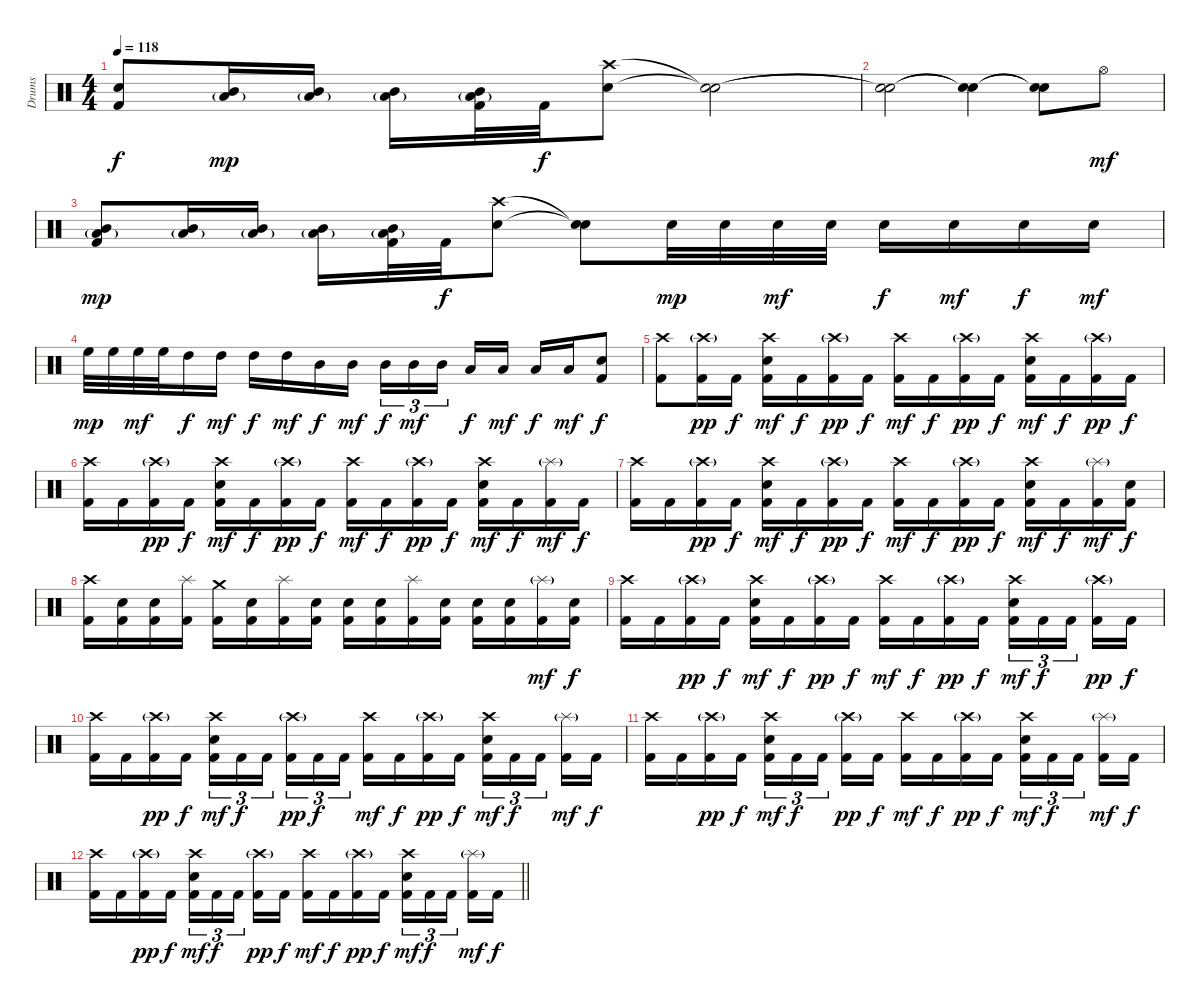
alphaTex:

\track ("Drums" "Drums") {instrument percussion}
\staff {score}
\articulation defaults
\ts (4 4)
\tempo 118
\clef neutral
\ks c
("Electric Snare (hit)" "Kick (hit) 2").8{dy f} ("Mid Tom (hit)" "Low Tom (hit)"{g}).16{dy mp} ("Mid Tom (hit)" "Low Tom (hit)"{g}).16 ("Mid Tom (hit)" "Low Tom (hit)"{g}).16 ("Mid Tom (hit)" "Low Tom (hit)"{g} "Kick (hit) 2").32 "Kick (hit) 2".32{dy f} ("Crash high (hit)" "Electric Snare (hit)").8 ("Snare (hit)"{t} "Snare (hit)"{t}).2 |
("Snare (hit)"{t} "Snare (hit)"{t}).2 ("Snare (hit)"{t} "Snare (hit)"{t}).4 ("Snare (hit)"{t} "Snare (hit)"{t}).8 "Hi-Hat (open)".8{dy mf} |
("Mid Tom (hit)" "Low Tom (hit)"{g} "Kick (hit) 2").8{dy mp} ("Mid Tom (hit)" "Low Tom (hit)"{g}).16 ("Mid Tom (hit)" "Low Tom (hit)"{g}).16 ("Mid Tom (hit)" "Low Tom (hit)"{g}).16 ("Mid Tom (hit)" "Low Tom (hit)"{g} "Kick (hit) 2").32 "Kick (hit) 2".32{dy f} ("Crash high (hit)" "Electric Snare (hit)").8 ("Snare (hit)"{t} "Snare (hit)"{t}).8 "Electric Snare (hit)".32{dy mp} "Electric Snare (hit)".32 "Electric Snare (hit)".32{dy mf} "Electric Snare (hit)".32 "Electric Snare (hit)".16{dy f} "Electric Snare (hit)".16{dy mf} "Electric Snare (hit)".16{dy f} "Electric Snare (hit)".16{dy mf} |
"High Floor Tom (hit)".32{dy mp} "High Floor Tom (hit)".32 "High Floor Tom (hit)".32{dy mf} "High Floor Tom (hit)".32 "High Tom (hit)".16{dy f} "High Tom (hit)".16{dy mf} "High Tom (hit)".16{dy f} "High Tom (hit)".16{dy mf} "Mid Tom (hit)".16{dy f} "Mid Tom (hit)".16{dy mf} "Mid Tom (hit)".16{tu (3 2) dy f} "Mid Tom (hit)".16{tu (3 2) dy mf} "Mid Tom (hit)".16{tu (3 2)} "Low Tom (hit)".16{dy f} "Low Tom (hit)".16{dy mf} "Low Tom (hit)".16{dy f} "Low Tom (hit)".16{dy mf} ("Electric Snare (hit)" "Kick (hit) 2").8{dy f} |
("Crash high (hit)" "Kick (hit) 2").8 ("Crash high (hit)"{g} "Kick (hit) 2").16{dy pp} "Kick (hit) 2".16{dy f} ("Crash high (hit)" "Electric Snare (hit)" "Kick (hit) 2").16{dy mf} "Kick (hit) 2".16{dy f} ("Crash high (hit)"{g} "Kick (hit) 2").16{dy pp} "Kick (hit) 2".16{dy f} ("Crash high (hit)" "Kick (hit) 2").16{dy mf} "Kick (hit) 2".16{dy f} ("Crash high (hit)"{g} "Kick (hit) 2").16{dy pp} "Kick (hit) 2".16{dy f} ("Crash high (hit)" "Electric Snare (hit)" "Kick (hit) 2").16{dy mf} "Kick (hit) 2".16{dy f} ("Crash high (hit)"{g} "Kick (hit) 2").16{dy pp} "Kick (hit) 2".16{dy f} |
("Crash high (hit)" "Kick (hit) 2").16 "Kick (hit) 2".16 ("Crash high (hit)"{g} "Kick (hit) 2").16{dy pp} "Kick (hit) 2".16{dy f} ("Crash high (hit)" "Electric Snare (hit)" "Kick (hit) 2").16{dy mf} "Kick (hit) 2".16{dy f} ("Crash high (hit)"{g} "Kick (hit) 2").16{dy pp} "Kick (hit) 2".16{dy f} ("Crash high (hit)" "Kick (hit) 2").16{dy mf} "Kick (hit) 2".16{dy f} ("Crash high (hit)"{g} "Kick (hit) 2").16{dy pp} "Kick (hit) 2".16{dy f} ("Crash high (hit)" "Electric Snare (hit)" "Kick (hit) 2").16{dy mf} "Kick (hit) 2".16{dy f} ("Splash (hit)"{g} "Kick (hit) 2").16{dy mf} "Kick (hit) 2".16{dy f} |
("Crash high (hit)" "Kick (hit) 2").16 "Kick (hit) 2".16 ("Crash high (hit)"{g} "Kick (hit) 2").16{dy pp} "Kick (hit) 2".16{dy f} ("Crash high (hit)" "Electric Snare (hit)" "Kick (hit) 2").16{dy mf} "Kick (hit) 2".16{dy f} ("Crash high (hit)"{g} "Kick (hit) 2").16{dy pp} "Kick (hit) 2".16{dy f} ("Crash high (hit)" "Kick (hit) 2").16{dy mf} "Kick (hit) 2".16{dy f} ("Crash high (hit)"{g} "Kick (hit) 2").16{dy pp} "Kick (hit) 2".16{dy f} ("Crash high (hit)" "Electric Snare (hit)" "Kick (hit) 2").16{dy mf} "Kick (hit) 2".16{dy f} ("Splash (hit)"{g} "Kick (hit) 2").16{dy mf} ("Electric Snare (hit)" "Kick (hit) 2").16{dy f} |
("Crash high (hit)" "Kick (hit) 2").16 ("Electric Snare (hit)" "Kick (hit) 2").16 ("Electric Snare (hit)" "Kick (hit) 2").16 ("Splash (hit)" "Kick (hit) 2").16 ("Crash medium (hit)" "Kick (hit) 2").16 ("Electric Snare (hit)" "Kick (hit) 2").16 ("Splash (hit)" "Kick (hit) 2").16 ("Electric Snare (hit)" "Kick (hit) 2").16 ("Electric Snare (hit)" "Kick (hit) 2").16 ("Electric Snare (hit)" "Kick (hit) 2").16 ("Splash (hit)" "Kick (hit) 2").16 ("Electric Snare (hit)" "Kick (hit) 2").16 ("Electric Snare (hit)" "Kick (hit) 2").16 ("Electric Snare (hit)" "Kick (hit) 2").16 ("Splash (hit)"{g} "Kick (hit) 2").16{dy mf} ("Electric Snare (hit)" "Kick (hit) 2").16{dy f} |
("Crash high (hit)" "Kick (hit) 2").16 "Kick (hit) 2".16 ("Crash high (hit)"{g} "Kick (hit) 2").16{dy pp} "Kick (hit) 2".16{dy f} ("Crash high (hit)" "Electric Snare (hit)" "Kick (hit) 2").16{dy mf} "Kick (hit) 2".16{dy f} ("Crash high (hit)"{g} "Kick (hit) 2").16{dy pp} "Kick (hit) 2".16{dy f} ("Crash high (hit)" "Kick (hit) 2").16{dy mf} "Kick (hit) 2".16{dy f} ("Crash high (hit)"{g} "Kick (hit) 2").16{dy pp} "Kick (hit) 2".16{dy f} ("Crash high (hit)" "Electric Snare (hit)" "Kick (hit) 2").16{tu (3 2) dy mf} "Kick (hit) 2".16{tu (3 2) dy f} "Kick (hit) 2".16{tu (3 2)} ("Crash high (hit)"{g} "Kick (hit) 2").16{dy pp} "Kick (hit) 2".16{dy f} |
("Crash high (hit)" "Kick (hit) 2").16 "Kick (hit) 2".16 ("Crash high (hit)"{g} "Kick (hit) 2").16{dy pp} "Kick (hit) 2".16{dy f} ("Crash high (hit)" "Electric Snare (hit)" "Kick (hit) 2").16{tu (3 2) dy mf} "Kick (hit) 2".16{tu (3 2) dy f} "Kick (hit) 2".16{tu (3 2)} ("Crash high (hit)"{g} "Kick (hit) 2").16{tu (3 2) dy pp} "Kick (hit) 2".16{tu (3 2) dy f} "Kick (hit) 2".16{tu (3 2)} ("Crash high (hit)" "Kick (hit) 2").16{dy mf} "Kick (hit) 2".16{dy f} ("Crash high (hit)"{g} "Kick (hit) 2").16{dy pp} "Kick (hit) 2".16{dy f} ("Crash high (hit)" "Electric Snare (hit)" "Kick (hit) 2").16{tu (3 2) dy mf} "Kick (hit) 2".16{tu (3 2) dy f} "Kick (hit) 2".16{tu (3 2)} ("Splash (hit)"{g} "Kick (hit) 2").16{dy mf} "Kick (hit) 2".16{dy f} |
("Crash high (hit)" "Kick (hit) 2").16 "Kick (hit) 2".16 ("Crash high (hit)"{g} "Kick (hit) 2").16{dy pp} "Kick (hit) 2".16{dy f} ("Crash high (hit)" "Electric Snare (hit)" "Kick (hit) 2").16{tu (3 2) dy mf} "Kick (hit) 2".16{tu (3 2) dy f} "Kick (hit) 2".16{tu (3 2)} ("Crash high (hit)"{g} "Kick (hit) 2").16{dy pp} "Kick (hit) 2".16{dy f} ("Crash high (hit)" "Kick (hit) 2").16{dy mf} "Kick (hit) 2".16{dy f} ("Crash high (hit)"{g} "Kick (hit) 2").16{dy pp} "Kick (hit) 2".16{dy f} ("Crash high (hit)" "Electric Snare (hit)" "Kick (hit) 2").16{tu (3 2) dy mf} "Kick (hit) 2".16{tu (3 2) dy f} "Kick (hit) 2".16{tu (3 2)} ("Splash (hit)"{g} "Kick (hit) 2").16{dy mf} "Kick (hit) 2".16{dy f} |
\barLineRight lightlight
("Crash high (hit)" "Kick (hit) 2").16 "Kick (hit) 2".16 ("Crash high (hit)"{g} "Kick (hit) 2").16{dy pp} "Kick (hit) 2".16{dy f} ("Crash high (hit)" "Electric Snare (hit)" "Kick (hit) 2").16{tu (3 2) dy mf} "Kick (hit) 2".16{tu (3 2) dy f} "Kick (hit) 2".16{tu (3 2)} ("Crash high (hit)"{g} "Kick (hit) 2").16{dy pp} "Kick (hit) 2".16{dy f} ("Crash high (hit)" "Kick (hit) 2").16{dy mf} "Kick (hit) 2".16{dy f} ("Crash high (hit)"{g} "Kick (hit) 2").16{dy pp} "Kick (hit) 2".16{dy f} ("Crash high (hit)" "Electric Snare (hit)" "Kick (hit) 2").16{tu (3 2) dy mf} "Kick (hit) 2".16{tu (3 2) dy f} "Kick (hit) 2".16{tu (3 2)} ("Splash (hit)"{g} "Kick (hit) 2").16{dy mf} "Kick (hit) 2".16{dy f}
